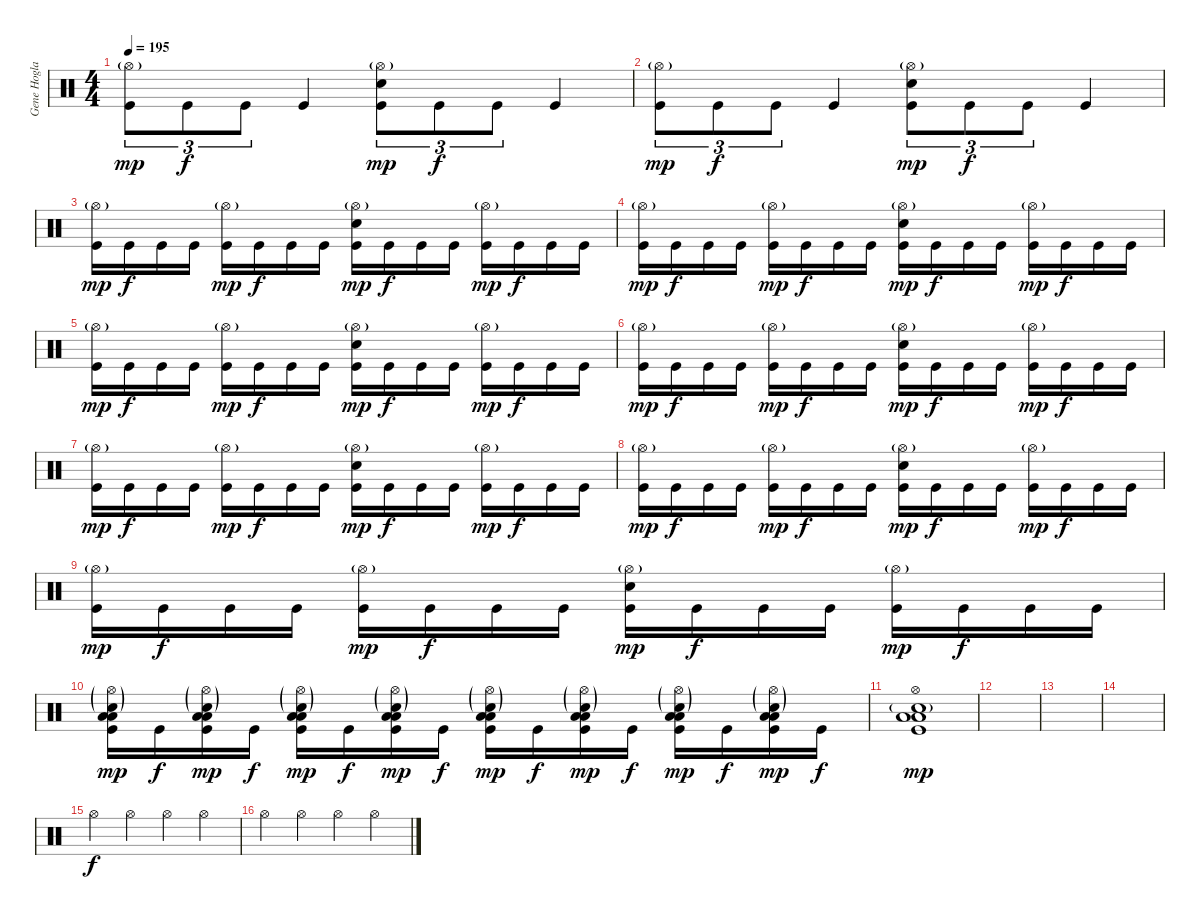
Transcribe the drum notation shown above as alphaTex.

\track ("Gene Hoglan" "Gene Hogla") {instrument percussion}
\staff {score}
\articulation defaults
\ts (4 4)
\tempo 195
\clef neutral
\ks c
("Hi-Hat (open)"{g} "Kick (hit)").8{tu (3 2) dy mp} "Kick (hit)".8{tu (3 2) dy f} "Kick (hit)".8{tu (3 2)} "Kick (hit)".4 ("Hi-Hat (open)"{g} "Electric Snare (hit)" "Kick (hit)").8{tu (3 2) dy mp} "Kick (hit)".8{tu (3 2) dy f} "Kick (hit)".8{tu (3 2)} "Kick (hit)".4 |
("Hi-Hat (open)"{g} "Kick (hit)").8{tu (3 2) dy mp} "Kick (hit)".8{tu (3 2) dy f} "Kick (hit)".8{tu (3 2)} "Kick (hit)".4 ("Hi-Hat (open)"{g} "Electric Snare (hit)" "Kick (hit)").8{tu (3 2) dy mp} "Kick (hit)".8{tu (3 2) dy f} "Kick (hit)".8{tu (3 2)} "Kick (hit)".4 |
("Hi-Hat (open)"{g} "Kick (hit)").16{dy mp} "Kick (hit)".16{dy f} "Kick (hit)".16 "Kick (hit)".16 ("Hi-Hat (open)"{g} "Kick (hit)").16{dy mp} "Kick (hit)".16{dy f} "Kick (hit)".16 "Kick (hit)".16 ("Hi-Hat (open)"{g} "Electric Snare (hit)" "Kick (hit)").16{dy mp} "Kick (hit)".16{dy f} "Kick (hit)".16 "Kick (hit)".16 ("Hi-Hat (open)"{g} "Kick (hit)").16{dy mp} "Kick (hit)".16{dy f} "Kick (hit)".16 "Kick (hit)".16 |
("Hi-Hat (open)"{g} "Kick (hit)").16{dy mp} "Kick (hit)".16{dy f} "Kick (hit)".16 "Kick (hit)".16 ("Hi-Hat (open)"{g} "Kick (hit)").16{dy mp} "Kick (hit)".16{dy f} "Kick (hit)".16 "Kick (hit)".16 ("Hi-Hat (open)"{g} "Electric Snare (hit)" "Kick (hit)").16{dy mp} "Kick (hit)".16{dy f} "Kick (hit)".16 "Kick (hit)".16 ("Hi-Hat (open)"{g} "Kick (hit)").16{dy mp} "Kick (hit)".16{dy f} "Kick (hit)".16 "Kick (hit)".16 |
("Hi-Hat (open)"{g} "Kick (hit)").16{dy mp} "Kick (hit)".16{dy f} "Kick (hit)".16 "Kick (hit)".16 ("Hi-Hat (open)"{g} "Kick (hit)").16{dy mp} "Kick (hit)".16{dy f} "Kick (hit)".16 "Kick (hit)".16 ("Hi-Hat (open)"{g} "Electric Snare (hit)" "Kick (hit)").16{dy mp} "Kick (hit)".16{dy f} "Kick (hit)".16 "Kick (hit)".16 ("Hi-Hat (open)"{g} "Kick (hit)").16{dy mp} "Kick (hit)".16{dy f} "Kick (hit)".16 "Kick (hit)".16 |
("Hi-Hat (open)"{g} "Kick (hit)").16{dy mp} "Kick (hit)".16{dy f} "Kick (hit)".16 "Kick (hit)".16 ("Hi-Hat (open)"{g} "Kick (hit)").16{dy mp} "Kick (hit)".16{dy f} "Kick (hit)".16 "Kick (hit)".16 ("Hi-Hat (open)"{g} "Electric Snare (hit)" "Kick (hit)").16{dy mp} "Kick (hit)".16{dy f} "Kick (hit)".16 "Kick (hit)".16 ("Hi-Hat (open)"{g} "Kick (hit)").16{dy mp} "Kick (hit)".16{dy f} "Kick (hit)".16 "Kick (hit)".16 |
("Hi-Hat (open)"{g} "Kick (hit)").16{dy mp} "Kick (hit)".16{dy f} "Kick (hit)".16 "Kick (hit)".16 ("Hi-Hat (open)"{g} "Kick (hit)").16{dy mp} "Kick (hit)".16{dy f} "Kick (hit)".16 "Kick (hit)".16 ("Hi-Hat (open)"{g} "Electric Snare (hit)" "Kick (hit)").16{dy mp} "Kick (hit)".16{dy f} "Kick (hit)".16 "Kick (hit)".16 ("Hi-Hat (open)"{g} "Kick (hit)").16{dy mp} "Kick (hit)".16{dy f} "Kick (hit)".16 "Kick (hit)".16 |
("Hi-Hat (open)"{g} "Kick (hit)").16{dy mp} "Kick (hit)".16{dy f} "Kick (hit)".16 "Kick (hit)".16 ("Hi-Hat (open)"{g} "Kick (hit)").16{dy mp} "Kick (hit)".16{dy f} "Kick (hit)".16 "Kick (hit)".16 ("Hi-Hat (open)"{g} "Electric Snare (hit)" "Kick (hit)").16{dy mp} "Kick (hit)".16{dy f} "Kick (hit)".16 "Kick (hit)".16 ("Hi-Hat (open)"{g} "Kick (hit)").16{dy mp} "Kick (hit)".16{dy f} "Kick (hit)".16 "Kick (hit)".16 |
("Hi-Hat (open)"{g} "Kick (hit)").16{dy mp} "Kick (hit)".16{dy f} "Kick (hit)".16 "Kick (hit)".16 ("Hi-Hat (open)"{g} "Kick (hit)").16{dy mp} "Kick (hit)".16{dy f} "Kick (hit)".16 "Kick (hit)".16 ("Hi-Hat (open)"{g} "Electric Snare (hit)" "Kick (hit)").16{dy mp} "Kick (hit)".16{dy f} "Kick (hit)".16 "Kick (hit)".16 ("Hi-Hat (open)"{g} "Kick (hit)").16{dy mp} "Kick (hit)".16{dy f} "Kick (hit)".16 "Kick (hit)".16 |
("Hi-Hat (open)"{g} "Low Tom (hit)" "Low Floor Tom (hit)" "Electric Snare (hit)"{g} "Kick (hit)").16{dy mp} "Kick (hit)".16{dy f} ("Hi-Hat (open)"{g} "Low Tom (hit)" "Low Floor Tom (hit)" "Electric Snare (hit)"{g} "Kick (hit)").16{dy mp} "Kick (hit)".16{dy f} ("Hi-Hat (open)"{g} "Low Tom (hit)" "Low Floor Tom (hit)" "Electric Snare (hit)"{g} "Kick (hit)").16{dy mp} "Kick (hit)".16{dy f} ("Hi-Hat (open)"{g} "Low Tom (hit)" "Low Floor Tom (hit)" "Electric Snare (hit)"{g} "Kick (hit)").16{dy mp} "Kick (hit)".16{dy f} ("Hi-Hat (open)"{g} "Low Tom (hit)" "Low Floor Tom (hit)" "Electric Snare (hit)"{g} "Kick (hit)").16{dy mp} "Kick (hit)".16{dy f} ("Hi-Hat (open)"{g} "Low Tom (hit)" "Low Floor Tom (hit)" "Electric Snare (hit)"{g} "Kick (hit)").16{dy mp} "Kick (hit)".16{dy f} ("Hi-Hat (open)"{g} "Low Tom (hit)" "Low Floor Tom (hit)" "Electric Snare (hit)"{g} "Kick (hit)").16{dy mp} "Kick (hit)".16{dy f} ("Hi-Hat (open)"{g} "Low Tom (hit)" "Low Floor Tom (hit)" "Electric Snare (hit)"{g} "Kick (hit)").16{dy mp} "Kick (hit)".16{dy f} |
("Hi-Hat (open)" "Low Tom (hit)" "Low Floor Tom (hit)" "Electric Snare (hit)"{g} "Kick (hit)").1{dy mp} |
|
|
|
"Hi-Hat (open)".4{dy f} "Hi-Hat (open)".4 "Hi-Hat (open)".4 "Hi-Hat (open)".4 |
"Hi-Hat (open)".4 "Hi-Hat (open)".4 "Hi-Hat (open)".4 "Hi-Hat (open)".4
